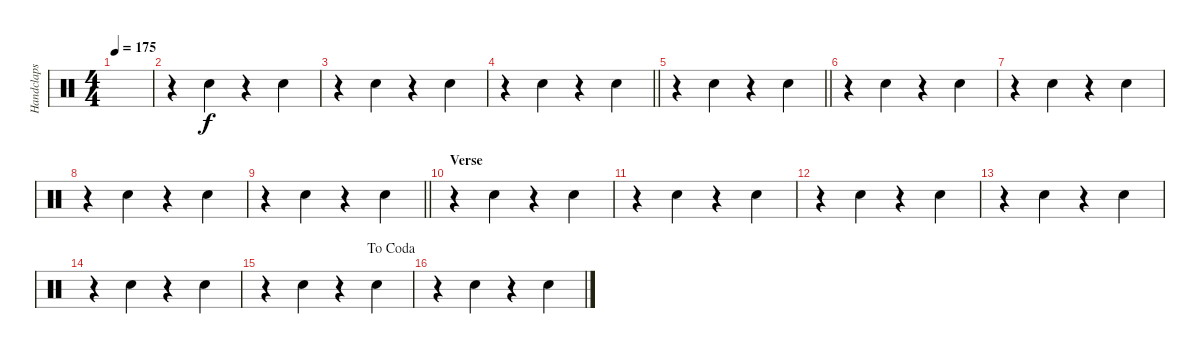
\track ("Handclaps" "Handclaps") {instrument percussion}
\staff {score}
\articulation defaults
\ts (4 4)
\tempo 175
\clef neutral
\ks c
|
r.4 "Hand Clap (hit)".4 r.4 "Hand Clap (hit)".4 |
r.4 "Hand Clap (hit)".4 r.4 "Hand Clap (hit)".4 |
\barLineRight lightlight
r.4 "Hand Clap (hit)".4 r.4 "Hand Clap (hit)".4 |
\barLineRight lightlight
r.4 "Hand Clap (hit)".4 r.4 "Hand Clap (hit)".4 |
r.4 "Hand Clap (hit)".4 r.4 "Hand Clap (hit)".4 |
r.4 "Hand Clap (hit)".4 r.4 "Hand Clap (hit)".4 |
r.4 "Hand Clap (hit)".4 r.4 "Hand Clap (hit)".4 |
\barLineRight lightlight
r.4 "Hand Clap (hit)".4 r.4 "Hand Clap (hit)".4 |
\section ("" "Verse")
r.4 "Hand Clap (hit)".4 r.4 "Hand Clap (hit)".4 |
r.4 "Hand Clap (hit)".4 r.4 "Hand Clap (hit)".4 |
r.4 "Hand Clap (hit)".4 r.4 "Hand Clap (hit)".4 |
r.4 "Hand Clap (hit)".4 r.4 "Hand Clap (hit)".4 |
r.4 "Hand Clap (hit)".4 r.4 "Hand Clap (hit)".4 |
\jump dacoda
r.4 "Hand Clap (hit)".4 r.4 "Hand Clap (hit)".4 |
r.4 "Hand Clap (hit)".4 r.4 "Hand Clap (hit)".4
